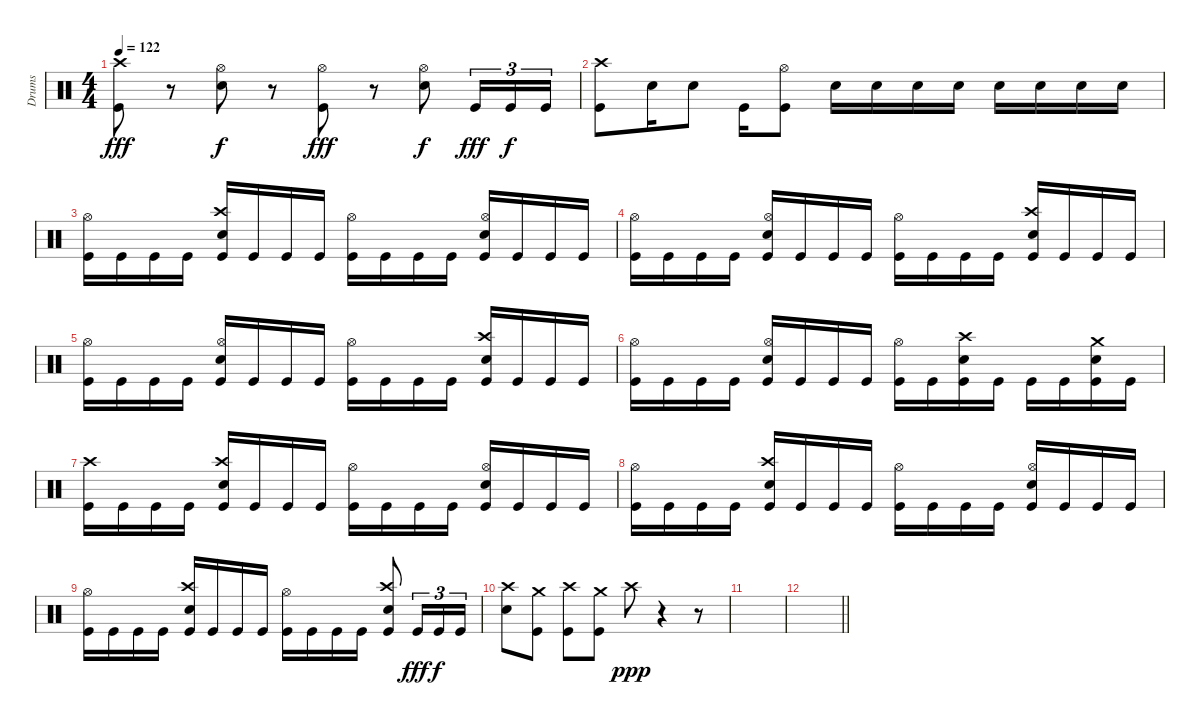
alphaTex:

\track ("Drums" "Drums") {instrument percussion}
\staff {score}
\articulation defaults
\ts (4 4)
\tempo 122
\clef neutral
\ks c
("Kick (hit)" "Crash high (hit)").8{dy fff} r.8 ("Hi-Hat (open)" "Snare (hit) 2").8{dy f} r.8 ("Kick (hit)" "Hi-Hat (open)").8{dy fff} r.8 ("Hi-Hat (open)" "Snare (hit) 2").8{dy f} "Kick (hit)".16{tu (3 2) dy fff} "Kick (hit)".16{tu (3 2) dy f} "Kick (hit)".16{tu (3 2)} |
("Crash high (hit)" "Kick (hit)").8 "Snare (hit) 2".16 "Snare (hit) 2".8 "Kick (hit)".16 ("Kick (hit)" "Hi-Hat (open)").8 "Snare (hit) 2".16 "Snare (hit) 2".16 "Snare (hit) 2".16 "Snare (hit) 2".16 "Snare (hit) 2".16 "Snare (hit) 2".16 "Snare (hit) 2".16 "Snare (hit) 2".16 |
("Hi-Hat (open)" "Kick (hit)").16 "Kick (hit)".16 "Kick (hit)".16 "Kick (hit)".16 ("Crash high (hit)" "Kick (hit)" "Snare (hit) 2").16 "Kick (hit)".16 "Kick (hit)".16 "Kick (hit)".16 ("Kick (hit)" "Hi-Hat (open)").16 "Kick (hit)".16 "Kick (hit)".16 "Kick (hit)".16 ("Hi-Hat (open)" "Kick (hit)" "Snare (hit) 2").16 "Kick (hit)".16 "Kick (hit)".16 "Kick (hit)".16 |
("Hi-Hat (open)" "Kick (hit)").16 "Kick (hit)".16 "Kick (hit)".16 "Kick (hit)".16 ("Hi-Hat (open)" "Kick (hit)" "Snare (hit) 2").16 "Kick (hit)".16 "Kick (hit)".16 "Kick (hit)".16 ("Kick (hit)" "Hi-Hat (open)").16 "Kick (hit)".16 "Kick (hit)".16 "Kick (hit)".16 ("Crash high (hit)" "Kick (hit)" "Snare (hit) 2").16 "Kick (hit)".16 "Kick (hit)".16 "Kick (hit)".16 |
("Hi-Hat (open)" "Kick (hit)").16 "Kick (hit)".16 "Kick (hit)".16 "Kick (hit)".16 ("Hi-Hat (open)" "Kick (hit)" "Snare (hit) 2").16 "Kick (hit)".16 "Kick (hit)".16 "Kick (hit)".16 ("Kick (hit)" "Hi-Hat (open)").16 "Kick (hit)".16 "Kick (hit)".16 "Kick (hit)".16 ("Crash high (hit)" "Kick (hit)" "Snare (hit) 2").16 "Kick (hit)".16 "Kick (hit)".16 "Kick (hit)".16 |
("Hi-Hat (open)" "Kick (hit)").16 "Kick (hit)".16 "Kick (hit)".16 "Kick (hit)".16 ("Hi-Hat (open)" "Kick (hit)" "Snare (hit) 2").16 "Kick (hit)".16 "Kick (hit)".16 "Kick (hit)".16 ("Kick (hit)" "Hi-Hat (open)").16 "Kick (hit)".16 ("Kick (hit)" "Crash high (hit)" "Snare (hit) 2").16 "Kick (hit)".16 "Kick (hit)".16 "Kick (hit)".16 ("Kick (hit)" "Crash medium (hit)" "Snare (hit) 2").16 "Kick (hit)".16 |
("Crash high (hit)" "Kick (hit)").16 "Kick (hit)".16 "Kick (hit)".16 "Kick (hit)".16 ("Crash high (hit)" "Kick (hit)" "Snare (hit) 2").16 "Kick (hit)".16 "Kick (hit)".16 "Kick (hit)".16 ("Kick (hit)" "Hi-Hat (open)").16 "Kick (hit)".16 "Kick (hit)".16 "Kick (hit)".16 ("Hi-Hat (open)" "Kick (hit)" "Snare (hit) 2").16 "Kick (hit)".16 "Kick (hit)".16 "Kick (hit)".16 |
("Hi-Hat (open)" "Kick (hit)").16 "Kick (hit)".16 "Kick (hit)".16 "Kick (hit)".16 ("Crash high (hit)" "Kick (hit)" "Snare (hit) 2").16 "Kick (hit)".16 "Kick (hit)".16 "Kick (hit)".16 ("Kick (hit)" "Hi-Hat (open)").16 "Kick (hit)".16 "Kick (hit)".16 "Kick (hit)".16 ("Hi-Hat (open)" "Kick (hit)" "Snare (hit) 2").16 "Kick (hit)".16 "Kick (hit)".16 "Kick (hit)".16 |
("Hi-Hat (open)" "Kick (hit)").16 "Kick (hit)".16 "Kick (hit)".16 "Kick (hit)".16 ("Crash high (hit)" "Kick (hit)" "Snare (hit) 2").16 "Kick (hit)".16 "Kick (hit)".16 "Kick (hit)".16 ("Kick (hit)" "Hi-Hat (open)").16 "Kick (hit)".16 "Kick (hit)".16 "Kick (hit)".16 ("Crash high (hit)" "Kick (hit)" "Snare (hit) 2").8 "Kick (hit)".16{tu (3 2) dy fff} "Kick (hit)".16{tu (3 2) dy f} "Kick (hit)".16{tu (3 2)} |
("Snare (hit) 2" "Crash high (hit)").8 ("Crash medium (hit)" "Kick (hit)").8 ("Kick (hit)" "Crash high (hit)").8 ("Crash medium (hit)" "Kick (hit)").8 "Crash high (hit)".8{dy ppp} r.4 r.8 |
|
\barLineRight lightlight
